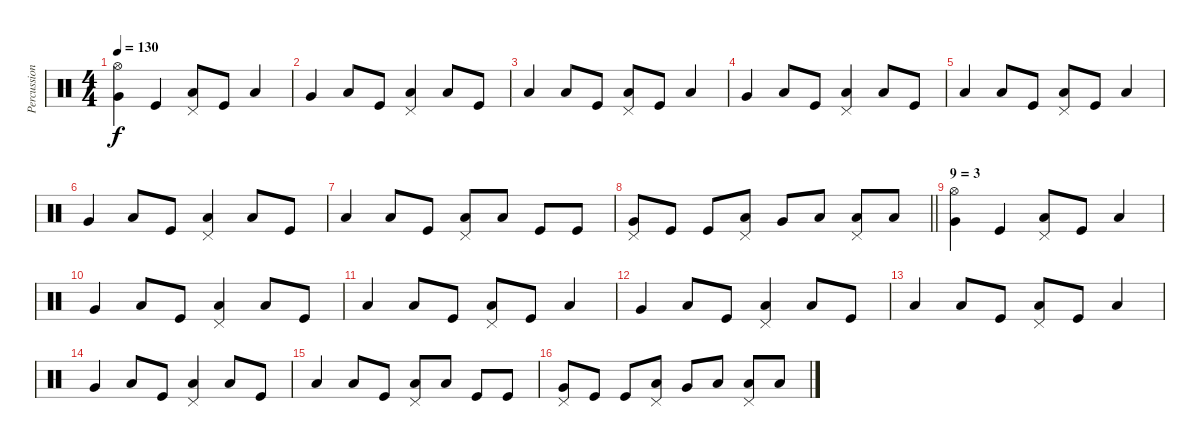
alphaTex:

\track ("Percussioni" "Percussion") {instrument percussion}
\staff {score}
\articulation defaults
\ts (4 4)
\tempo 130
\clef neutral
\ks c
("Hi-Hat (open)" "Very Low Tom (hit)").4{dy f} "Kick (hit)".4 ("Low Floor Tom (hit)" "Pedal Hi-Hat (hit)").8 "Kick (hit)".8 "Low Floor Tom (hit)".4 |
"Very Low Tom (hit)".4 "Low Floor Tom (hit)".8 "Kick (hit)".8 ("Low Floor Tom (hit)" "Pedal Hi-Hat (hit)").4 "Low Floor Tom (hit)".8 "Kick (hit)".8 |
"Low Floor Tom (hit)".4 "Low Floor Tom (hit)".8 "Kick (hit)".8 ("Low Floor Tom (hit)" "Pedal Hi-Hat (hit)").8 "Kick (hit)".8 "Low Floor Tom (hit)".4 |
"Very Low Tom (hit)".4 "Low Floor Tom (hit)".8 "Kick (hit)".8 ("Low Floor Tom (hit)" "Pedal Hi-Hat (hit)").4 "Low Floor Tom (hit)".8 "Kick (hit)".8 |
"Low Floor Tom (hit)".4 "Low Floor Tom (hit)".8 "Kick (hit)".8 ("Low Floor Tom (hit)" "Pedal Hi-Hat (hit)").8 "Kick (hit)".8 "Low Floor Tom (hit)".4 |
"Very Low Tom (hit)".4 "Low Floor Tom (hit)".8 "Kick (hit)".8 ("Low Floor Tom (hit)" "Pedal Hi-Hat (hit)").4 "Low Floor Tom (hit)".8 "Kick (hit)".8 |
"Low Floor Tom (hit)".4 "Low Floor Tom (hit)".8 "Kick (hit)".8 ("Low Floor Tom (hit)" "Pedal Hi-Hat (hit)").8 "Low Floor Tom (hit)".8 "Kick (hit)".8 "Kick (hit)".8 |
\barLineRight lightlight
("Very Low Tom (hit)" "Pedal Hi-Hat (hit)").8 "Kick (hit)".8 "Kick (hit)".8 ("Low Floor Tom (hit)" "Pedal Hi-Hat (hit)").8 "Very Low Tom (hit)".8 "Low Floor Tom (hit)".8 ("Low Floor Tom (hit)" "Pedal Hi-Hat (hit)").8 "Low Floor Tom (hit)".8 |
\section ("" "9 = 3")
("Hi-Hat (open)" "Very Low Tom (hit)").4 "Kick (hit)".4 ("Low Floor Tom (hit)" "Pedal Hi-Hat (hit)").8 "Kick (hit)".8 "Low Floor Tom (hit)".4 |
"Very Low Tom (hit)".4 "Low Floor Tom (hit)".8 "Kick (hit)".8 ("Low Floor Tom (hit)" "Pedal Hi-Hat (hit)").4 "Low Floor Tom (hit)".8 "Kick (hit)".8 |
"Low Floor Tom (hit)".4 "Low Floor Tom (hit)".8 "Kick (hit)".8 ("Low Floor Tom (hit)" "Pedal Hi-Hat (hit)").8 "Kick (hit)".8 "Low Floor Tom (hit)".4 |
"Very Low Tom (hit)".4 "Low Floor Tom (hit)".8 "Kick (hit)".8 ("Low Floor Tom (hit)" "Pedal Hi-Hat (hit)").4 "Low Floor Tom (hit)".8 "Kick (hit)".8 |
"Low Floor Tom (hit)".4 "Low Floor Tom (hit)".8 "Kick (hit)".8 ("Low Floor Tom (hit)" "Pedal Hi-Hat (hit)").8 "Kick (hit)".8 "Low Floor Tom (hit)".4 |
"Very Low Tom (hit)".4 "Low Floor Tom (hit)".8 "Kick (hit)".8 ("Low Floor Tom (hit)" "Pedal Hi-Hat (hit)").4 "Low Floor Tom (hit)".8 "Kick (hit)".8 |
"Low Floor Tom (hit)".4 "Low Floor Tom (hit)".8 "Kick (hit)".8 ("Low Floor Tom (hit)" "Pedal Hi-Hat (hit)").8 "Low Floor Tom (hit)".8 "Kick (hit)".8 "Kick (hit)".8 |
("Very Low Tom (hit)" "Pedal Hi-Hat (hit)").8 "Kick (hit)".8 "Kick (hit)".8 ("Low Floor Tom (hit)" "Pedal Hi-Hat (hit)").8 "Very Low Tom (hit)".8 "Low Floor Tom (hit)".8 ("Low Floor Tom (hit)" "Pedal Hi-Hat (hit)").8 "Low Floor Tom (hit)".8
